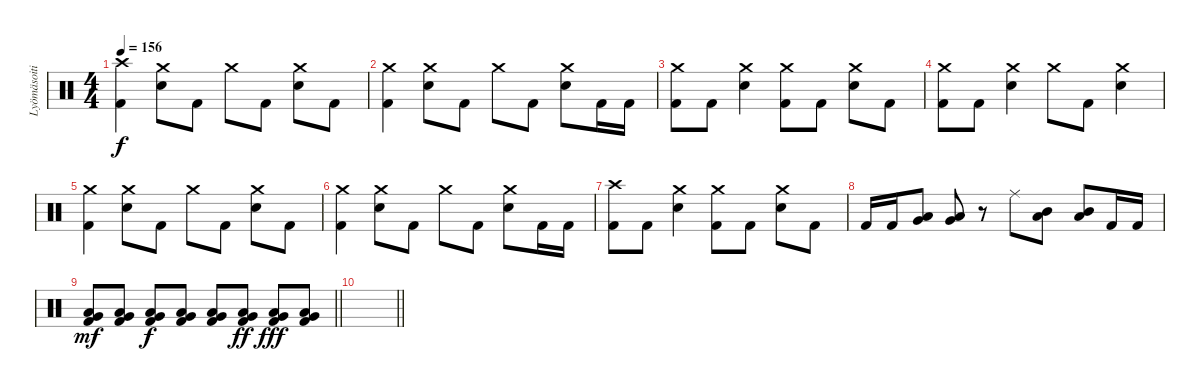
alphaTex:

\track ("Lyömäsoitin" "Lyömäsoiti") {instrument percussion}
\staff {score}
\articulation defaults
\ts (4 4)
\tempo 156
\clef neutral
\ks c
("Crash high (hit)" "Kick (hit) 2").4{dy f} ("Crash medium (hit)" "Electric Snare (hit)").8 "Kick (hit) 2".8 "Crash medium (hit)".8 "Kick (hit) 2".8 ("Crash medium (hit)" "Electric Snare (hit)").8 "Kick (hit) 2".8 |
("Crash medium (hit)" "Kick (hit) 2").4 ("Crash medium (hit)" "Electric Snare (hit)").8 "Kick (hit) 2".8 "Crash medium (hit)".8 "Kick (hit) 2".8 ("Crash medium (hit)" "Electric Snare (hit)").8 "Kick (hit) 2".16 "Kick (hit) 2".16 |
("Crash medium (hit)" "Kick (hit) 2").8 "Kick (hit) 2".8 ("Crash medium (hit)" "Electric Snare (hit)").4 ("Crash medium (hit)" "Kick (hit) 2").8 "Kick (hit) 2".8 ("Crash medium (hit)" "Electric Snare (hit)").8 "Kick (hit) 2".8 |
("Crash medium (hit)" "Kick (hit) 2").8 "Kick (hit) 2".8 ("Crash medium (hit)" "Electric Snare (hit)").4 "Crash medium (hit)".8 "Kick (hit) 2".8 ("Crash medium (hit)" "Electric Snare (hit)").4 |
("Crash medium (hit)" "Kick (hit) 2").4 ("Crash medium (hit)" "Electric Snare (hit)").8 "Kick (hit) 2".8 "Crash medium (hit)".8 "Kick (hit) 2".8 ("Crash medium (hit)" "Electric Snare (hit)").8 "Kick (hit) 2".8 |
("Crash medium (hit)" "Kick (hit) 2").4 ("Crash medium (hit)" "Electric Snare (hit)").8 "Kick (hit) 2".8 "Crash medium (hit)".8 "Kick (hit) 2".8 ("Crash medium (hit)" "Electric Snare (hit)").8 "Kick (hit) 2".16 "Kick (hit) 2".16 |
("Crash high (hit)" "Kick (hit) 2").8 "Kick (hit) 2".8 ("Crash medium (hit)" "Electric Snare (hit)").4 ("Crash medium (hit)" "Kick (hit) 2").8 "Kick (hit) 2".8 ("Crash medium (hit)" "Electric Snare (hit)").8 "Kick (hit) 2".8 |
"Kick (hit) 2".16 "Kick (hit) 2".16 ("Low Floor Tom (hit)" "Very Low Tom (hit)").8 ("Low Floor Tom (hit)" "Very Low Tom (hit)").8 r.8 "Ride (middle)".8 ("Mid Tom (hit)" "Low Tom (hit)").8 ("Mid Tom (hit)" "Low Tom (hit)").8 "Kick (hit) 2".16 "Kick (hit) 2".16 |
\barLineRight lightlight
("Low Floor Tom (hit)" "Very Low Tom (hit)" "Kick (hit) 2").8{dy mf} ("Low Floor Tom (hit)" "Very Low Tom (hit)" "Kick (hit) 2").8 ("Low Floor Tom (hit)" "Very Low Tom (hit)" "Kick (hit) 2").8{dy f} ("Low Floor Tom (hit)" "Very Low Tom (hit)" "Kick (hit) 2").8 ("Low Floor Tom (hit)" "Very Low Tom (hit)" "Kick (hit) 2").8 ("Low Floor Tom (hit)" "Very Low Tom (hit)" "Kick (hit) 2").8{dy ff} ("Low Floor Tom (hit)" "Very Low Tom (hit)" "Kick (hit) 2").8{dy fff} ("Low Floor Tom (hit)" "Very Low Tom (hit)" "Kick (hit) 2").8 |
\barLineRight lightlight
